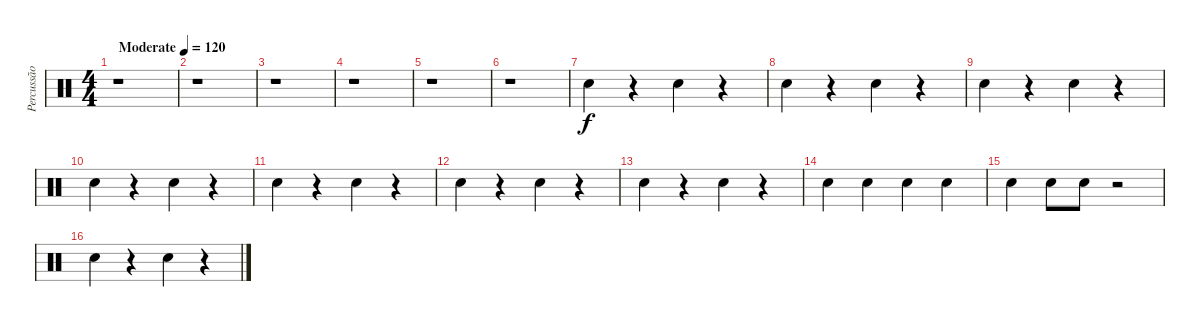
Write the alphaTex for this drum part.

\track ("Percussão" "Percussão") {instrument percussion}
\staff {score}
\articulation defaults
\ts (4 4)
\tempo (120 "Moderate")
\clef neutral
\ks c
r.1{dy f} |
r.1 |
r.1 |
r.1 |
r.1 |
r.1 |
"Hand Clap (hit)".4 r.4 "Hand Clap (hit)".4 r.4 |
"Hand Clap (hit)".4 r.4 "Hand Clap (hit)".4 r.4 |
"Hand Clap (hit)".4 r.4 "Hand Clap (hit)".4 r.4 |
"Hand Clap (hit)".4 r.4 "Hand Clap (hit)".4 r.4 |
"Hand Clap (hit)".4 r.4 "Hand Clap (hit)".4 r.4 |
"Hand Clap (hit)".4 r.4 "Hand Clap (hit)".4 r.4 |
"Hand Clap (hit)".4 r.4 "Hand Clap (hit)".4 r.4 |
"Hand Clap (hit)".4 "Hand Clap (hit)".4 "Hand Clap (hit)".4 "Hand Clap (hit)".4 |
"Hand Clap (hit)".4 "Hand Clap (hit)".8 "Hand Clap (hit)".8 r.2 |
"Hand Clap (hit)".4 r.4 "Hand Clap (hit)".4 r.4
